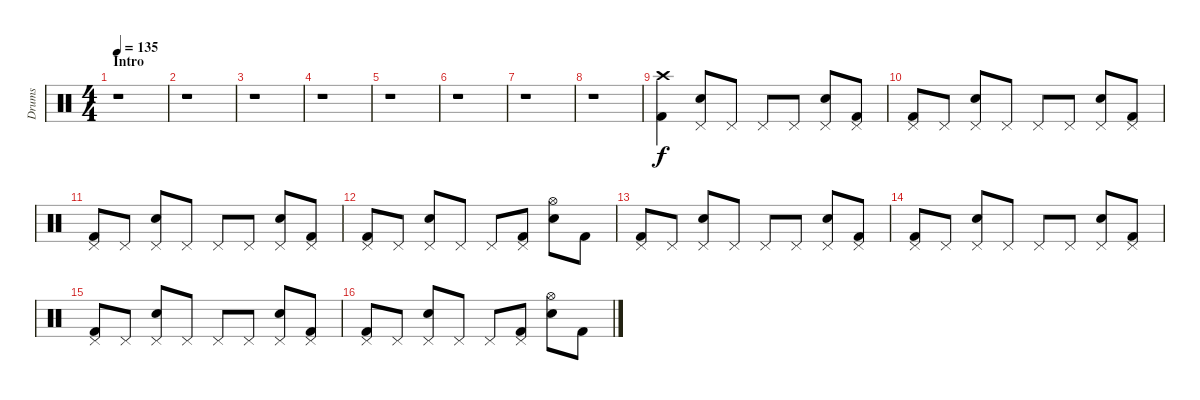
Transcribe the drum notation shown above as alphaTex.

\track ("Drums" "Drums") {instrument percussion}
\staff {score}
\articulation defaults
\ts (4 4)
\section ("" "Intro")
\tempo 135
\clef neutral
\ks c
r.1{dy f} |
r.1 |
r.1 |
r.1 |
r.1 |
r.1 |
r.1 |
r.1 |
("Crash high (hit)" "Kick (hit) 2").4 ("Pedal Hi-Hat (hit)" "Snare (hit) 2").8 "Pedal Hi-Hat (hit)".8 "Pedal Hi-Hat (hit)".8 "Pedal Hi-Hat (hit)".8 ("Pedal Hi-Hat (hit)" "Snare (hit) 2").8 ("Pedal Hi-Hat (hit)" "Kick (hit) 2").8 |
("Pedal Hi-Hat (hit)" "Kick (hit) 2").8 "Pedal Hi-Hat (hit)".8 ("Pedal Hi-Hat (hit)" "Snare (hit) 2").8 "Pedal Hi-Hat (hit)".8 "Pedal Hi-Hat (hit)".8 "Pedal Hi-Hat (hit)".8 ("Pedal Hi-Hat (hit)" "Snare (hit) 2").8 ("Pedal Hi-Hat (hit)" "Kick (hit) 2").8 |
("Pedal Hi-Hat (hit)" "Kick (hit) 2").8 "Pedal Hi-Hat (hit)".8 ("Pedal Hi-Hat (hit)" "Snare (hit) 2").8 "Pedal Hi-Hat (hit)".8 "Pedal Hi-Hat (hit)".8 "Pedal Hi-Hat (hit)".8 ("Pedal Hi-Hat (hit)" "Snare (hit) 2").8 ("Pedal Hi-Hat (hit)" "Kick (hit) 2").8 |
("Pedal Hi-Hat (hit)" "Kick (hit) 2").8 "Pedal Hi-Hat (hit)".8 ("Pedal Hi-Hat (hit)" "Snare (hit) 2").8 "Pedal Hi-Hat (hit)".8 "Pedal Hi-Hat (hit)".8 ("Pedal Hi-Hat (hit)" "Kick (hit) 2").8 ("Hi-Hat (open)" "Snare (hit) 2").8 "Kick (hit) 2".8 |
("Pedal Hi-Hat (hit)" "Kick (hit) 2").8 "Pedal Hi-Hat (hit)".8 ("Pedal Hi-Hat (hit)" "Snare (hit) 2").8 "Pedal Hi-Hat (hit)".8 "Pedal Hi-Hat (hit)".8 "Pedal Hi-Hat (hit)".8 ("Pedal Hi-Hat (hit)" "Snare (hit) 2").8 ("Pedal Hi-Hat (hit)" "Kick (hit) 2").8 |
("Pedal Hi-Hat (hit)" "Kick (hit) 2").8 "Pedal Hi-Hat (hit)".8 ("Pedal Hi-Hat (hit)" "Snare (hit) 2").8 "Pedal Hi-Hat (hit)".8 "Pedal Hi-Hat (hit)".8 "Pedal Hi-Hat (hit)".8 ("Pedal Hi-Hat (hit)" "Snare (hit) 2").8 ("Pedal Hi-Hat (hit)" "Kick (hit) 2").8 |
("Pedal Hi-Hat (hit)" "Kick (hit) 2").8 "Pedal Hi-Hat (hit)".8 ("Pedal Hi-Hat (hit)" "Snare (hit) 2").8 "Pedal Hi-Hat (hit)".8 "Pedal Hi-Hat (hit)".8 "Pedal Hi-Hat (hit)".8 ("Pedal Hi-Hat (hit)" "Snare (hit) 2").8 ("Pedal Hi-Hat (hit)" "Kick (hit) 2").8 |
("Pedal Hi-Hat (hit)" "Kick (hit) 2").8 "Pedal Hi-Hat (hit)".8 ("Pedal Hi-Hat (hit)" "Snare (hit) 2").8 "Pedal Hi-Hat (hit)".8 "Pedal Hi-Hat (hit)".8 ("Pedal Hi-Hat (hit)" "Kick (hit) 2").8 ("Hi-Hat (open)" "Snare (hit) 2").8 "Kick (hit) 2".8
